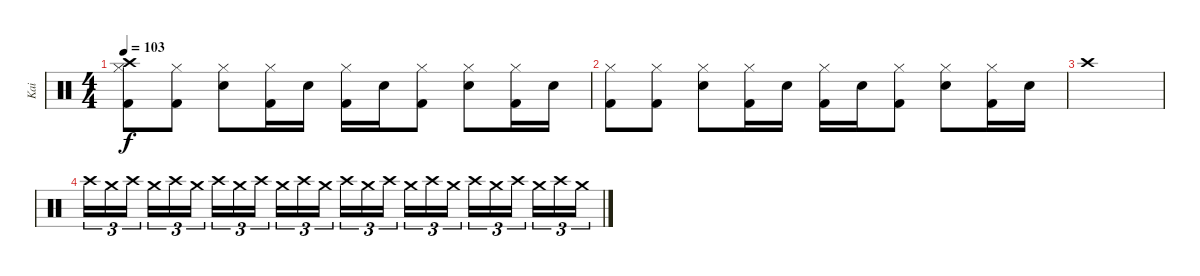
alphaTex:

\track ("Kai" "Kai") {instrument percussion}
\staff {score}
\articulation defaults
\ts (4 4)
\tempo 103
\clef neutral
\ks c
("Crash high (hit)" "Hi-Hat (closed)" "Kick (hit) 2").8{dy f} ("Hi-Hat (closed)" "Kick (hit) 2").8 ("Hi-Hat (closed)" "Electric Snare (hit)").8 ("Hi-Hat (closed)" "Kick (hit) 2").16 "Electric Snare (hit)".16 ("Hi-Hat (closed)" "Kick (hit) 2").16 "Electric Snare (hit)".16 ("Hi-Hat (closed)" "Kick (hit) 2").8 ("Hi-Hat (closed)" "Electric Snare (hit)").8 ("Hi-Hat (closed)" "Kick (hit) 2").16 "Electric Snare (hit)".16 |
("Hi-Hat (closed)" "Kick (hit) 2").8 ("Hi-Hat (closed)" "Kick (hit) 2").8 ("Hi-Hat (closed)" "Electric Snare (hit)").8 ("Hi-Hat (closed)" "Kick (hit) 2").16 "Electric Snare (hit)".16 ("Hi-Hat (closed)" "Kick (hit) 2").16 "Electric Snare (hit)".16 ("Hi-Hat (closed)" "Kick (hit) 2").8 ("Hi-Hat (closed)" "Electric Snare (hit)").8 ("Hi-Hat (closed)" "Kick (hit) 2").16 "Electric Snare (hit)".16 |
"Crash high (hit)".1 |
"Crash high (hit)".16{tu (3 2)} "Crash medium (hit)".16{tu (3 2)} "Crash high (hit)".16{tu (3 2) beam splitsecondary} "Crash medium (hit)".16{tu (3 2)} "Crash high (hit)".16{tu (3 2)} "Crash medium (hit)".16{tu (3 2)} "Crash high (hit)".16{tu (3 2)} "Crash medium (hit)".16{tu (3 2)} "Crash high (hit)".16{tu (3 2) beam splitsecondary} "Crash medium (hit)".16{tu (3 2)} "Crash high (hit)".16{tu (3 2)} "Crash medium (hit)".16{tu (3 2)} "Crash high (hit)".16{tu (3 2)} "Crash medium (hit)".16{tu (3 2)} "Crash high (hit)".16{tu (3 2) beam splitsecondary} "Crash medium (hit)".16{tu (3 2)} "Crash high (hit)".16{tu (3 2)} "Crash medium (hit)".16{tu (3 2)} "Crash high (hit)".16{tu (3 2)} "Crash medium (hit)".16{tu (3 2)} "Crash high (hit)".16{tu (3 2) beam splitsecondary} "Crash medium (hit)".16{tu (3 2)} "Crash high (hit)".16{tu (3 2)} "Crash medium (hit)".16{tu (3 2)}
